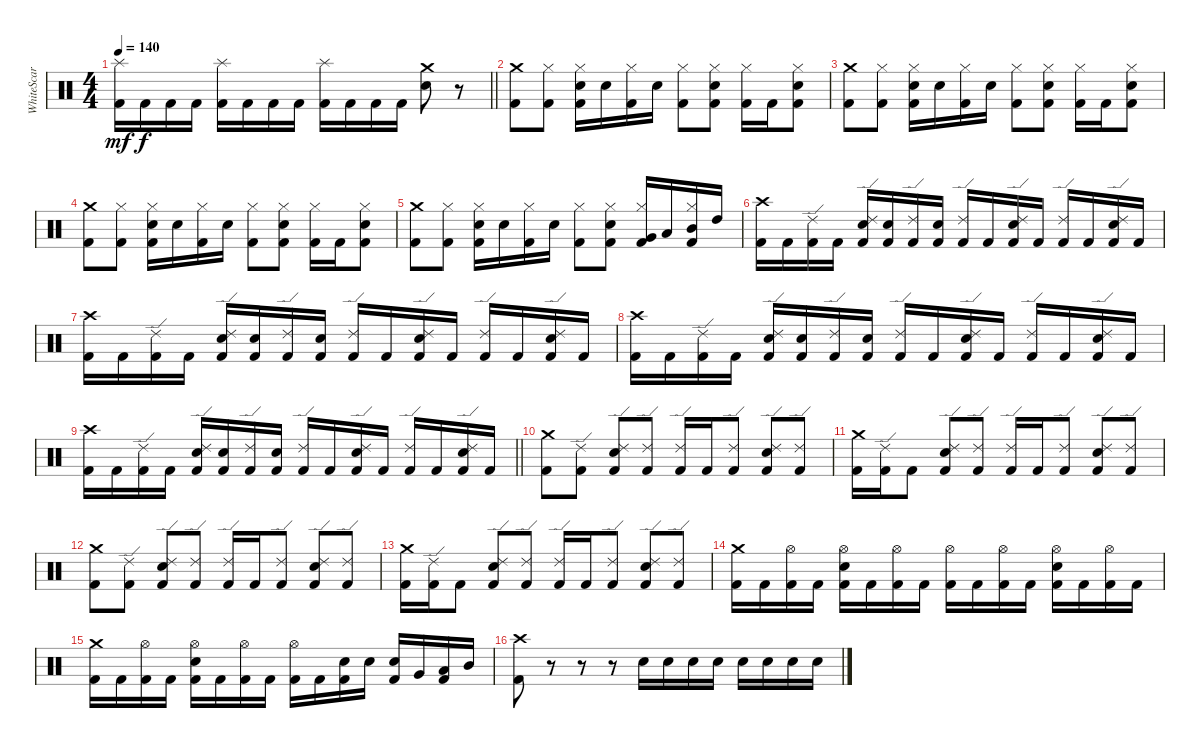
\track ("WhiteScar " "WhiteScar ") {instrument percussion}
\staff {score}
\articulation defaults
\ts (4 4)
\tempo 140
\clef neutral
\barLineRight lightlight
\ks c
("Splash (hit)" "Kick (hit) 2").16{dy mf} "Kick (hit) 2".16{dy f} "Kick (hit) 2".16 "Kick (hit) 2".16 ("Splash (hit)" "Kick (hit) 2").16 "Kick (hit) 2".16 "Kick (hit) 2".16 "Kick (hit) 2".16 ("Splash (hit)" "Kick (hit) 2").16 "Kick (hit) 2".16 "Kick (hit) 2".16 "Kick (hit) 2".16 ("Crash medium (hit)" "Snare (hit) 2").8 r.8 |
("Crash medium (hit)" "Kick (hit) 2").8 ("Hi-Hat (closed)" "Kick (hit) 2").8 ("Hi-Hat (closed)" "Snare (hit) 2" "Kick (hit) 2").16 "Snare (hit) 2".16 ("Hi-Hat (closed)" "Kick (hit) 2").16 "Snare (hit) 2".16 ("Hi-Hat (closed)" "Kick (hit) 2").8 ("Hi-Hat (closed)" "Snare (hit) 2" "Kick (hit) 2").8 ("Hi-Hat (closed)" "Kick (hit) 2").16 "Kick (hit) 2".16 ("Hi-Hat (closed)" "Snare (hit) 2" "Kick (hit) 2").8 |
("Crash medium (hit)" "Kick (hit) 2").8 ("Hi-Hat (closed)" "Kick (hit) 2").8 ("Hi-Hat (closed)" "Snare (hit) 2" "Kick (hit) 2").16 "Snare (hit) 2".16 ("Hi-Hat (closed)" "Kick (hit) 2").16 "Snare (hit) 2".16 ("Hi-Hat (closed)" "Kick (hit) 2").8 ("Hi-Hat (closed)" "Snare (hit) 2" "Kick (hit) 2").8 ("Hi-Hat (closed)" "Kick (hit) 2").16 "Kick (hit) 2".16 ("Hi-Hat (closed)" "Snare (hit) 2" "Kick (hit) 2").8 |
("Crash medium (hit)" "Kick (hit) 2").8 ("Hi-Hat (closed)" "Kick (hit) 2").8 ("Hi-Hat (closed)" "Snare (hit) 2" "Kick (hit) 2").16 "Snare (hit) 2".16 ("Hi-Hat (closed)" "Kick (hit) 2").16 "Snare (hit) 2".16 ("Hi-Hat (closed)" "Kick (hit) 2").8 ("Hi-Hat (closed)" "Snare (hit) 2" "Kick (hit) 2").8 ("Hi-Hat (closed)" "Kick (hit) 2").16 "Kick (hit) 2".16 ("Hi-Hat (closed)" "Snare (hit) 2" "Kick (hit) 2").8 |
("Crash medium (hit)" "Kick (hit) 2").8 ("Hi-Hat (closed)" "Kick (hit) 2").8 ("Hi-Hat (closed)" "Snare (hit) 2" "Kick (hit) 2").16 "Snare (hit) 2".16 ("Hi-Hat (closed)" "Kick (hit) 2").16 "Snare (hit) 2".16 ("Hi-Hat (closed)" "Kick (hit) 2").8 ("Hi-Hat (closed)" "Snare (hit) 2" "Kick (hit) 2").8 ("Hi-Hat (closed)" "Very Low Tom (hit)" "Kick (hit) 2").16 "Low Tom (hit)".16 ("Hi-Hat (closed)" "Mid Tom (hit)" "Kick (hit) 2").16 "High Tom (hit)".16 |
("Crash high (hit)" "Kick (hit) 2").16 "Kick (hit) 2".16 ("Ride (edge) 2" "Kick (hit) 2").16 "Kick (hit) 2".16 ("Ride (edge) 2" "Snare (hit) 2" "Kick (hit) 2").16 ("Snare (hit) 2" "Kick (hit) 2").16 ("Ride (edge) 2" "Kick (hit) 2").16 ("Snare (hit) 2" "Kick (hit) 2").16 ("Ride (edge) 2" "Kick (hit) 2").16 "Kick (hit) 2".16 ("Ride (edge) 2" "Snare (hit) 2" "Kick (hit) 2").16 "Kick (hit) 2".16 ("Ride (edge) 2" "Kick (hit) 2").16 "Kick (hit) 2".16 ("Ride (edge) 2" "Snare (hit) 2" "Kick (hit) 2").16 "Kick (hit) 2".16 |
("Crash high (hit)" "Kick (hit) 2").16 "Kick (hit) 2".16 ("Ride (edge) 2" "Kick (hit) 2").16 "Kick (hit) 2".16 ("Ride (edge) 2" "Snare (hit) 2" "Kick (hit) 2").16 ("Snare (hit) 2" "Kick (hit) 2").16 ("Ride (edge) 2" "Kick (hit) 2").16 ("Snare (hit) 2" "Kick (hit) 2").16 ("Ride (edge) 2" "Kick (hit) 2").16 "Kick (hit) 2".16 ("Ride (edge) 2" "Snare (hit) 2" "Kick (hit) 2").16 "Kick (hit) 2".16 ("Ride (edge) 2" "Kick (hit) 2").16 "Kick (hit) 2".16 ("Ride (edge) 2" "Snare (hit) 2" "Kick (hit) 2").16 "Kick (hit) 2".16 |
("Crash high (hit)" "Kick (hit) 2").16 "Kick (hit) 2".16 ("Ride (edge) 2" "Kick (hit) 2").16 "Kick (hit) 2".16 ("Ride (edge) 2" "Snare (hit) 2" "Kick (hit) 2").16 ("Snare (hit) 2" "Kick (hit) 2").16 ("Ride (edge) 2" "Kick (hit) 2").16 ("Snare (hit) 2" "Kick (hit) 2").16 ("Ride (edge) 2" "Kick (hit) 2").16 "Kick (hit) 2".16 ("Ride (edge) 2" "Snare (hit) 2" "Kick (hit) 2").16 "Kick (hit) 2".16 ("Ride (edge) 2" "Kick (hit) 2").16 "Kick (hit) 2".16 ("Ride (edge) 2" "Snare (hit) 2" "Kick (hit) 2").16 "Kick (hit) 2".16 |
\barLineRight lightlight
("Crash high (hit)" "Kick (hit) 2").16 "Kick (hit) 2".16 ("Ride (edge) 2" "Kick (hit) 2").16 "Kick (hit) 2".16 ("Ride (edge) 2" "Snare (hit) 2" "Kick (hit) 2").16 ("Snare (hit) 2" "Kick (hit) 2").16 ("Ride (edge) 2" "Kick (hit) 2").16 ("Snare (hit) 2" "Kick (hit) 2").16 ("Ride (edge) 2" "Kick (hit) 2").16 "Kick (hit) 2".16 ("Ride (edge) 2" "Snare (hit) 2" "Kick (hit) 2").16 "Kick (hit) 2".16 ("Ride (edge) 2" "Kick (hit) 2").16 "Kick (hit) 2".16 ("Ride (edge) 2" "Snare (hit) 2" "Kick (hit) 2").16 "Kick (hit) 2".16 |
("Crash medium (hit)" "Kick (hit) 2").8 ("Ride (edge) 2" "Kick (hit) 2").8 ("Snare (hit) 2" "Ride (edge) 2" "Kick (hit) 2").8 ("Ride (edge) 2" "Kick (hit) 2").8 ("Ride (edge) 2" "Kick (hit) 2").16 "Kick (hit) 2".16 ("Ride (edge) 2" "Kick (hit) 2").8 ("Snare (hit) 2" "Ride (edge) 2" "Kick (hit) 2").8 ("Ride (edge) 2" "Kick (hit) 2").8 |
("Crash medium (hit)" "Kick (hit) 2").16 ("Ride (edge) 2" "Kick (hit) 2").16 "Kick (hit) 2".8 ("Snare (hit) 2" "Ride (edge) 2" "Kick (hit) 2").8 ("Ride (edge) 2" "Kick (hit) 2").8 ("Ride (edge) 2" "Kick (hit) 2").16 "Kick (hit) 2".16 ("Ride (edge) 2" "Kick (hit) 2").8 ("Snare (hit) 2" "Ride (edge) 2" "Kick (hit) 2").8 ("Ride (edge) 2" "Kick (hit) 2").8 |
("Crash medium (hit)" "Kick (hit) 2").8 ("Ride (edge) 2" "Kick (hit) 2").8 ("Snare (hit) 2" "Ride (edge) 2" "Kick (hit) 2").8 ("Ride (edge) 2" "Kick (hit) 2").8 ("Ride (edge) 2" "Kick (hit) 2").16 "Kick (hit) 2".16 ("Ride (edge) 2" "Kick (hit) 2").8 ("Snare (hit) 2" "Ride (edge) 2" "Kick (hit) 2").8 ("Ride (edge) 2" "Kick (hit) 2").8 |
("Crash medium (hit)" "Kick (hit) 2").16 ("Ride (edge) 2" "Kick (hit) 2").16 "Kick (hit) 2".8 ("Snare (hit) 2" "Ride (edge) 2" "Kick (hit) 2").8 ("Ride (edge) 2" "Kick (hit) 2").8 ("Ride (edge) 2" "Kick (hit) 2").16 "Kick (hit) 2".16 ("Ride (edge) 2" "Kick (hit) 2").8 ("Snare (hit) 2" "Ride (edge) 2" "Kick (hit) 2").8 ("Ride (edge) 2" "Kick (hit) 2").8 |
("Crash medium (hit)" "Kick (hit) 2").16 "Kick (hit) 2".16 ("Hi-Hat (open)" "Kick (hit) 2").16 "Kick (hit) 2".16 ("Hi-Hat (open)" "Snare (hit) 2" "Kick (hit) 2").16 "Kick (hit) 2".16 ("Hi-Hat (open)" "Kick (hit) 2").16 "Kick (hit) 2".16 ("Hi-Hat (open)" "Kick (hit) 2").16 "Kick (hit) 2".16 ("Hi-Hat (open)" "Kick (hit) 2").16 "Kick (hit) 2".16 ("Hi-Hat (open)" "Snare (hit) 2" "Kick (hit) 2").16 "Kick (hit) 2".16 ("Hi-Hat (open)" "Kick (hit) 2").16 "Kick (hit) 2".16 |
("Crash medium (hit)" "Kick (hit) 2").16 "Kick (hit) 2".16 ("Hi-Hat (open)" "Kick (hit) 2").16 "Kick (hit) 2".16 ("Hi-Hat (open)" "Snare (hit) 2" "Kick (hit) 2").16 "Kick (hit) 2".16 ("Hi-Hat (open)" "Kick (hit) 2").16 "Kick (hit) 2".16 ("Hi-Hat (open)" "Kick (hit) 2").16 "Kick (hit) 2".16 ("Snare (hit) 2" "Kick (hit) 2").16 "Snare (hit) 2".16 ("Snare (hit) 2" "Kick (hit) 2").16 "Very Low Tom (hit)".16 ("Low Tom (hit)" "Kick (hit) 2").16 "Mid Tom (hit)".16 |
("Crash high (hit)" "Kick (hit) 2").8 r.8 r.8 r.8 "Snare (hit) 2".16{volume 6} "Snare (hit) 2".16{volume 7} "Snare (hit) 2".16{volume 8} "Snare (hit) 2".16{volume 9} "Snare (hit) 2".16{volume 10} "Snare (hit) 2".16{volume 11} "Snare (hit) 2".16{volume 12} "Snare (hit) 2".16
